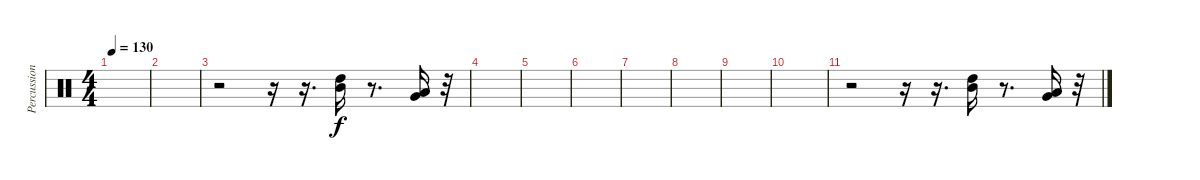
\track ("Percussion" "Percussion") {instrument percussion bank 177}
\staff {score}
\articulation defaults
\ts (4 4)
\tempo 130
\clef neutral
\ks c
|
|
r.2 r.16 r.16{d} ("High Tom (hit)" "Mid Tom (hit)").16 r.8{d} ("Low Tom (hit)" "Very Low Tom (hit)").16 r.32 |
|
|
|
|
|
|
|
r.2 r.16 r.16{d} ("High Tom (hit)" "Mid Tom (hit)").16 r.8{d} ("Low Tom (hit)" "Very Low Tom (hit)").16 r.32
